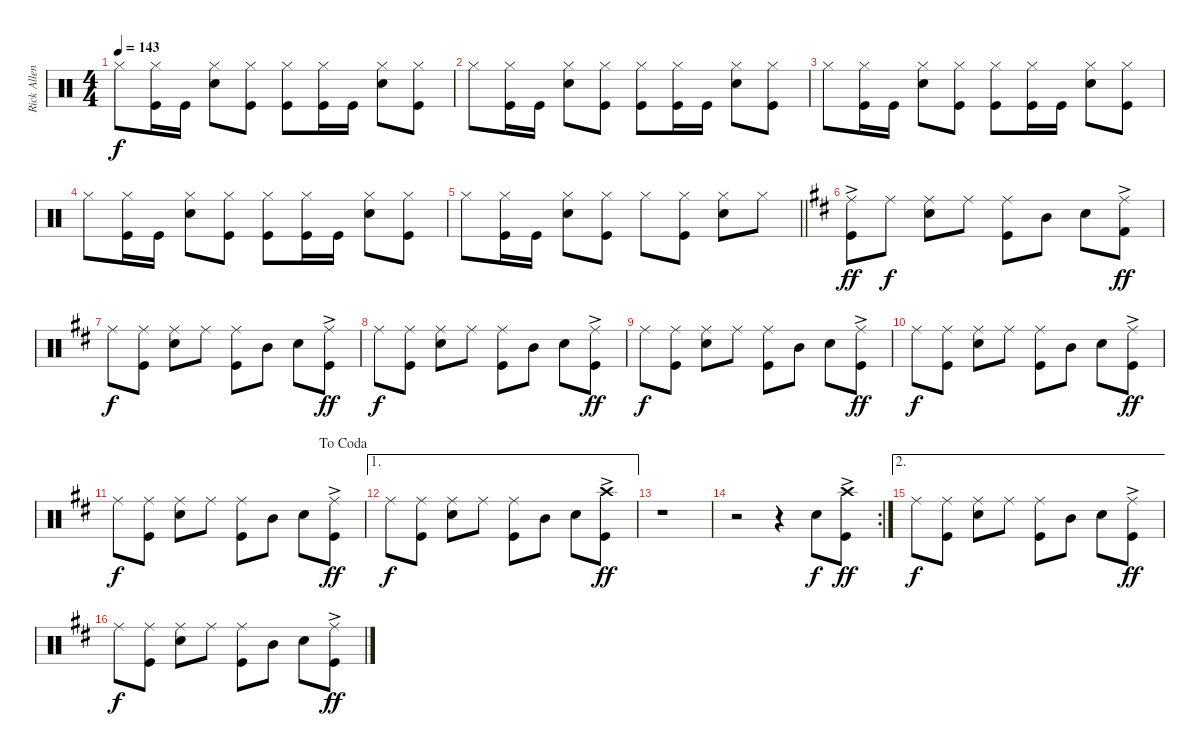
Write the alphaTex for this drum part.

\track ("Rick Allen" "Rick Allen") {instrument percussion}
\staff {score}
\articulation defaults
\ts (4 4)
\tempo 143
\clef neutral
\ks aminor "Hi-Hat (closed)".8{dy f}
("Hi-Hat (closed)" "Kick (hit)").16 "Kick (hit)".16 ("Hi-Hat (closed)" "Snare (hit) 2").8 ("Hi-Hat (closed)" "Kick (hit)").8 ("Hi-Hat (closed)" "Kick (hit)").8 ("Hi-Hat (closed)" "Kick (hit)").16 "Kick (hit)".16 ("Hi-Hat (closed)" "Snare (hit) 2").8 ("Hi-Hat (closed)" "Kick (hit)").8 |
"Hi-Hat (closed)".8 ("Hi-Hat (closed)" "Kick (hit)").16 "Kick (hit)".16 ("Hi-Hat (closed)" "Snare (hit) 2").8 ("Hi-Hat (closed)" "Kick (hit)").8 ("Hi-Hat (closed)" "Kick (hit)").8 ("Hi-Hat (closed)" "Kick (hit)").16 "Kick (hit)".16 ("Hi-Hat (closed)" "Snare (hit) 2").8 ("Kick (hit)" "Hi-Hat (closed)").8 |
"Hi-Hat (closed)".8 ("Hi-Hat (closed)" "Kick (hit)").16 "Kick (hit)".16 ("Hi-Hat (closed)" "Snare (hit) 2").8 ("Hi-Hat (closed)" "Kick (hit)").8 ("Hi-Hat (closed)" "Kick (hit)").8 ("Hi-Hat (closed)" "Kick (hit)").16 "Kick (hit)".16 ("Hi-Hat (closed)" "Snare (hit) 2").8 ("Kick (hit)" "Hi-Hat (closed)").8 |
"Hi-Hat (closed)".8 ("Hi-Hat (closed)" "Kick (hit)").16 "Kick (hit)".16 ("Hi-Hat (closed)" "Snare (hit) 2").8 ("Hi-Hat (closed)" "Kick (hit)").8 ("Hi-Hat (closed)" "Kick (hit)").8 ("Hi-Hat (closed)" "Kick (hit)").16 "Kick (hit)".16 ("Hi-Hat (closed)" "Snare (hit) 2").8 ("Kick (hit)" "Hi-Hat (closed)").8 |
\barLineRight lightlight "Hi-Hat (closed)".8
("Hi-Hat (closed)" "Kick (hit)").16 "Kick (hit)".16 ("Hi-Hat (closed)" "Snare (hit) 2").8 ("Kick (hit)" "Hi-Hat (closed)").8 "Hi-Hat (closed)".8 ("Hi-Hat (closed)" "Kick (hit)").8 ("Hi-Hat (closed)" "Snare (hit) 2").8 "Hi-Hat (closed)".8 |
\ks d
("Ride (middle)"{ac} "Kick (hit)").8{dy ff} "Ride (middle)".8{dy f} ("Ride (middle)" "Snare (hit) 2").8 "Ride (middle)".8 ("Ride (middle)" "Kick (hit)").8 "Mid Tom (hit)".8 "Snare (hit) 2".8 ("Ride (middle)"{ac} "Kick (hit) 2").8{dy ff} |
"Ride (middle)".8{dy f} ("Ride (middle)" "Kick (hit)").8 ("Ride (middle)" "Snare (hit) 2").8 "Ride (middle)".8 ("Ride (middle)" "Kick (hit)").8 "Mid Tom (hit)".8 "Snare (hit) 2".8 ("Ride (middle)" "Kick (hit)"{ac}).8{dy ff} |
"Ride (middle)".8{dy f} ("Ride (middle)" "Kick (hit)").8 ("Ride (middle)" "Snare (hit) 2").8 "Ride (middle)".8 ("Ride (middle)" "Kick (hit)").8 "Mid Tom (hit)".8 "Snare (hit) 2".8 ("Ride (middle)" "Kick (hit)"{ac}).8{dy ff} |
"Ride (middle)".8{dy f} ("Ride (middle)" "Kick (hit)").8 ("Ride (middle)" "Snare (hit) 2").8 "Ride (middle)".8 ("Ride (middle)" "Kick (hit)").8 "Mid Tom (hit)".8 "Snare (hit) 2".8 ("Ride (middle)" "Kick (hit)"{ac}).8{dy ff} |
"Ride (middle)".8{dy f} ("Ride (middle)" "Kick (hit)").8 ("Ride (middle)" "Snare (hit) 2").8 "Ride (middle)".8 ("Ride (middle)" "Kick (hit)").8 "Mid Tom (hit)".8 "Snare (hit) 2".8 ("Ride (middle)" "Kick (hit)"{ac}).8{dy ff} |
\jump dacoda "Ride (middle)".8{dy f}
("Ride (middle)" "Kick (hit)").8 ("Ride (middle)" "Snare (hit) 2").8 "Ride (middle)".8 ("Ride (middle)" "Kick (hit)").8 "Mid Tom (hit)".8 "Snare (hit) 2".8 ("Ride (middle)" "Kick (hit)"{ac}).8{dy ff} |
\ae 1 "Ride (middle)".8{dy f}
("Ride (middle)" "Kick (hit)").8 ("Ride (middle)" "Snare (hit) 2").8 "Ride (middle)".8 ("Ride (middle)" "Kick (hit)").8 "Mid Tom (hit)".8 "Snare (hit) 2".8 ("Crash high (hit)" "Kick (hit)"{ac}).8{dy ff} |
r.1 |
\rc 2
r.2 r.4 "Snare (hit) 2".8{dy f} ("Crash high (hit)" "Kick (hit)"{ac}).8{dy ff} |
\ae 2 "Ride (middle)".8{dy f}
("Ride (middle)" "Kick (hit)").8 ("Ride (middle)" "Snare (hit) 2").8 "Ride (middle)".8 ("Ride (middle)" "Kick (hit)").8 "Mid Tom (hit)".8 "Snare (hit) 2".8 ("Ride (middle)" "Kick (hit)"{ac}).8{dy ff} |
"Ride (middle)".8{dy f} ("Ride (middle)" "Kick (hit)").8 ("Ride (middle)" "Snare (hit) 2").8 "Ride (middle)".8 ("Ride (middle)" "Kick (hit)").8 "Mid Tom (hit)".8 "Snare (hit) 2".8 ("Ride (middle)" "Kick (hit)"{ac}).8{dy ff}
